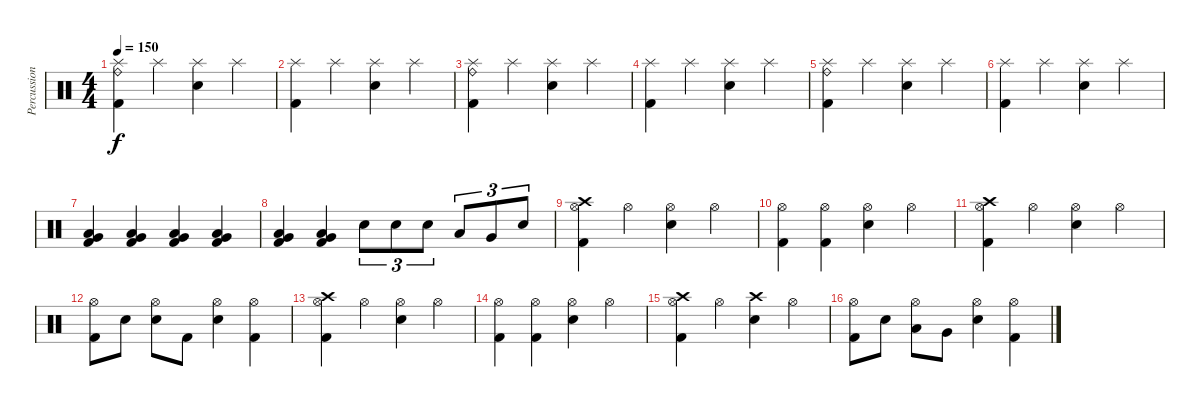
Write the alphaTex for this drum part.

\track ("Percussion" "Percussion") {instrument percussion}
\staff {score}
\articulation defaults
\ts (4 4)
\tempo 150
\clef neutral
\ks c
("Splash (hit)" "Ride (bell)" "Kick (hit) 2").4{dy f volume 13} "Splash (hit)".4 ("Splash (hit)" "Snare (hit) 2").4 "Splash (hit)".4 |
("Splash (hit)" "Kick (hit) 2").4 "Splash (hit)".4 ("Splash (hit)" "Snare (hit) 2").4 "Splash (hit)".4 |
("Splash (hit)" "Ride (bell)" "Kick (hit) 2").4 "Splash (hit)".4 ("Splash (hit)" "Snare (hit) 2").4 "Splash (hit)".4 |
("Splash (hit)" "Kick (hit) 2").4 "Splash (hit)".4 ("Splash (hit)" "Snare (hit) 2").4 "Splash (hit)".4 |
("Splash (hit)" "Ride (bell)" "Kick (hit) 2").4 "Splash (hit)".4 ("Splash (hit)" "Snare (hit) 2").4 "Splash (hit)".4 |
("Splash (hit)" "Kick (hit) 2").4 "Splash (hit)".4 ("Splash (hit)" "Snare (hit) 2").4 "Splash (hit)".4 |
("Low Tom (hit)" "Very Low Tom (hit)" "Kick (hit) 2").4 ("Low Tom (hit)" "Very Low Tom (hit)" "Kick (hit) 2").4 ("Low Tom (hit)" "Very Low Tom (hit)" "Kick (hit) 2").4 ("Low Tom (hit)" "Very Low Tom (hit)" "Kick (hit) 2").4 |
("Low Tom (hit)" "Very Low Tom (hit)" "Kick (hit) 2").4 ("Low Tom (hit)" "Very Low Tom (hit)" "Kick (hit) 2").4 "Snare (hit) 2".8{tu (3 2)} "Snare (hit) 2".8{tu (3 2)} "Snare (hit) 2".8{tu (3 2)} "Low Tom (hit)".8{tu (3 2)} "Very Low Tom (hit)".8{tu (3 2)} "Snare (hit) 2".8{tu (3 2)} |
("Crash high (hit)" "Hi-Hat (open)" "Kick (hit) 2").4 "Hi-Hat (open)".4 ("Hi-Hat (open)" "Snare (hit) 2").4 "Hi-Hat (open)".4 |
("Hi-Hat (open)" "Kick (hit) 2").4 ("Hi-Hat (open)" "Kick (hit) 2").4 ("Hi-Hat (open)" "Snare (hit) 2").4 "Hi-Hat (open)".4 |
("Crash high (hit)" "Hi-Hat (open)" "Kick (hit) 2").4 "Hi-Hat (open)".4 ("Hi-Hat (open)" "Snare (hit) 2").4 "Hi-Hat (open)".4 |
("Hi-Hat (open)" "Kick (hit) 2").8 "Snare (hit) 2".8 ("Hi-Hat (open)" "Snare (hit) 2").8 "Kick (hit) 2".8 ("Hi-Hat (open)" "Snare (hit) 2").4 ("Hi-Hat (open)" "Kick (hit) 2").4 |
("Crash high (hit)" "Hi-Hat (open)" "Kick (hit) 2").4 "Hi-Hat (open)".4 ("Hi-Hat (open)" "Snare (hit) 2").4 "Hi-Hat (open)".4 |
("Hi-Hat (open)" "Kick (hit) 2").4 ("Hi-Hat (open)" "Kick (hit) 2").4 ("Hi-Hat (open)" "Snare (hit) 2").4 "Hi-Hat (open)".4 |
("Crash high (hit)" "Hi-Hat (open)" "Kick (hit) 2").4 "Hi-Hat (open)".4 ("Crash high (hit)" "Snare (hit) 2").4 "Hi-Hat (open)".4 |
("Hi-Hat (open)" "Kick (hit) 2").8 "Snare (hit) 2".8 ("Hi-Hat (open)" "Low Tom (hit)").8 "Very Low Tom (hit)".8 ("Hi-Hat (open)" "Snare (hit) 2").4 ("Hi-Hat (open)" "Kick (hit) 2").4
